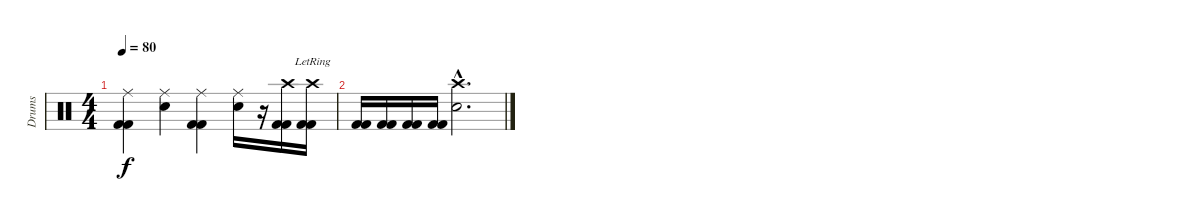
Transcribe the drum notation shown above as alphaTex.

\track ("Drums" "Drums") {instrument percussion}
\staff {score}
\articulation defaults
\ts (4 4)
\tempo 80
\clef neutral
\ks c
("Ride (middle)" "Kick (hit) 2" "Kick (hit) 2").4{dy f} ("Ride (middle)" "Snare (hit) 2").4 ("Ride (middle)" "Kick (hit) 2" "Kick (hit) 2").4 ("Ride (middle)" "Snare (hit) 2").16 r.16 ("Crash high (hit)" "Kick (hit) 2" "Kick (hit) 2").16 ("Crash high (hit)"{lr} "Kick (hit) 2" "Kick (hit) 2").16 |
("Kick (hit) 2" "Kick (hit) 2").16 ("Kick (hit) 2" "Kick (hit) 2").16 ("Kick (hit) 2" "Kick (hit) 2").16 ("Kick (hit) 2" "Kick (hit) 2").16 ("Crash high (hit)"{hac} "Snare (hit) 2"{hac}).2{d}
